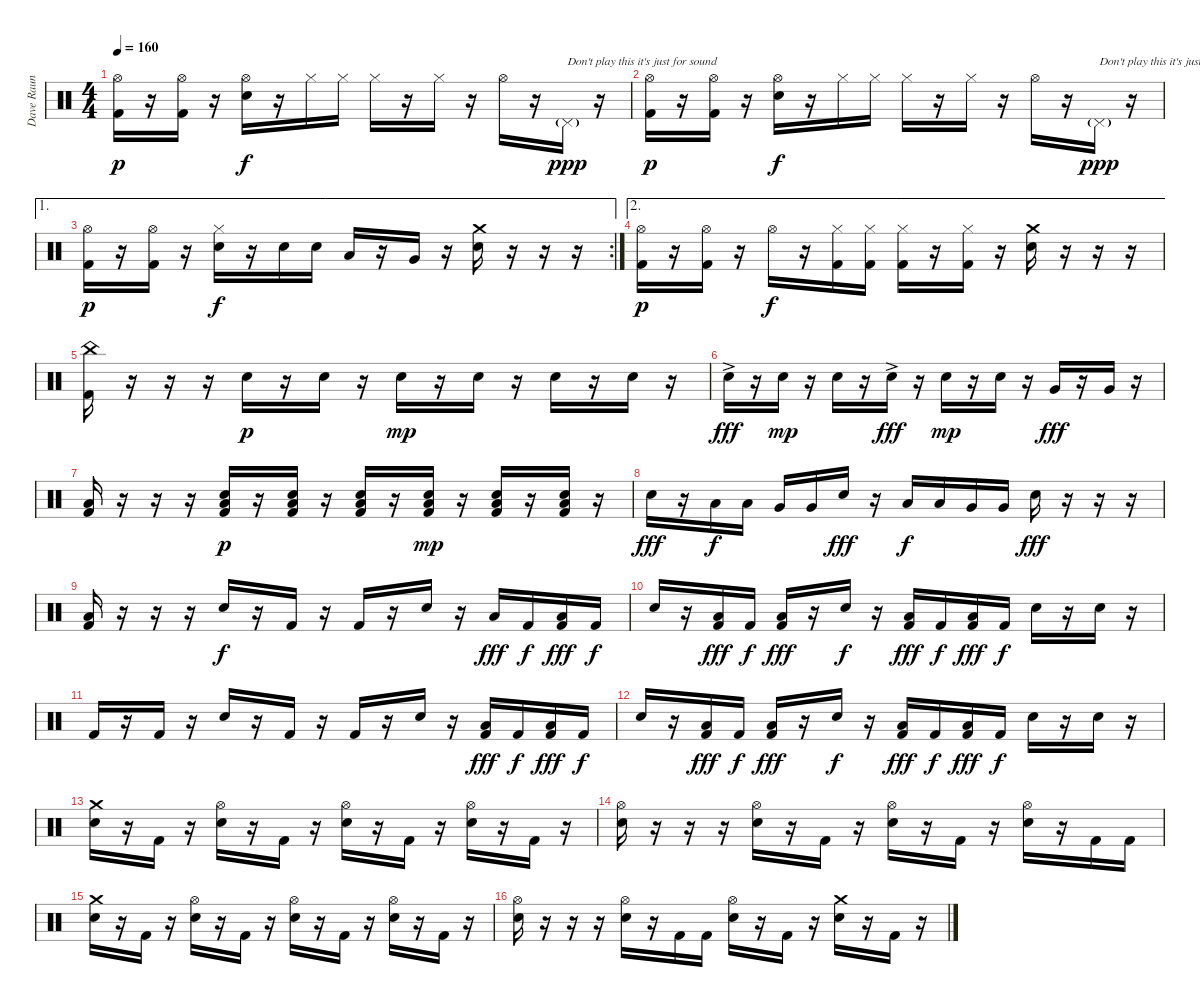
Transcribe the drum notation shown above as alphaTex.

\track ("Dave Raun" "Dave Raun") {instrument percussion}
\staff {score}
\articulation defaults
\ts (4 4)
\tempo 160
\clef neutral
\ks c
("Hi-Hat (open)" "Kick (hit) 2").16{dy p} r.16 ("Hi-Hat (open)" "Kick (hit) 2").16 r.16 ("Hi-Hat (open)" "Snare (hit) 2").16{dy f} r.16 "Hi-Hat (closed)".16 "Hi-Hat (closed)".16 "Hi-Hat (closed)".16 r.16 "Hi-Hat (closed)".16 r.16 "Hi-Hat (open)".16 r.16 "Pedal Hi-Hat (hit)"{g}.16{txt "Don't play this it's just for sound" dy ppp} r.16 |
("Hi-Hat (open)" "Kick (hit) 2").16{dy p} r.16 ("Hi-Hat (open)" "Kick (hit) 2").16 r.16 ("Hi-Hat (open)" "Snare (hit) 2").16{dy f} r.16 "Hi-Hat (closed)".16 "Hi-Hat (closed)".16 "Hi-Hat (closed)".16 r.16 "Hi-Hat (closed)".16 r.16 "Hi-Hat (open)".16 r.16 "Pedal Hi-Hat (hit)"{g}.16{txt "Don't play this it's just for sound" dy ppp} r.16 |
\ae 1
\rc 2
("Hi-Hat (open)" "Kick (hit) 2").16{dy p} r.16 ("Hi-Hat (open)" "Kick (hit) 2").16 r.16 ("Hi-Hat (closed)" "Snare (hit) 2").16{dy f} r.16 "Snare (hit) 2".16 "Snare (hit) 2".16 "Low Tom (hit)".16 r.16 "Very Low Tom (hit)".16 r.16 ("Crash medium (hit)" "Snare (hit) 2").16 r.16 r.16 r.16 |
\ae 2
("Hi-Hat (open)" "Kick (hit) 2").16{dy p} r.16 ("Hi-Hat (open)" "Kick (hit) 2").16 r.16 "Hi-Hat (open)".16{dy f} r.16 ("Hi-Hat (closed)" "Kick (hit) 2").16 ("Hi-Hat (closed)" "Kick (hit) 2").16 ("Hi-Hat (closed)" "Kick (hit) 2").16 r.16 ("Hi-Hat (closed)" "Kick (hit) 2").16 r.16 ("Crash medium (hit)" "Snare (hit) 2").16 r.16 r.16 r.16 |
("China (hit)" "Kick (hit) 2").16 r.16 r.16 r.16 "Snare (hit) 2".16{dy p} r.16 "Snare (hit) 2".16 r.16 "Snare (hit) 2".16{dy mp} r.16 "Snare (hit) 2".16 r.16 "Snare (hit) 2".16 r.16 "Snare (hit) 2".16 r.16 |
"Snare (hit) 2"{ac}.16{dy fff} r.16 "Snare (hit) 2".16{dy mp} r.16 "Snare (hit) 2".16 r.16 "Snare (hit) 2"{ac}.16{dy fff} r.16 "Snare (hit) 2".16{dy mp} r.16 "Snare (hit) 2".16 r.16 "Very Low Tom (hit)".16{dy fff} r.16 "Very Low Tom (hit)".16 r.16 |
("Low Tom (hit)" "Kick (hit) 2").16 r.16 r.16 r.16 ("Low Floor Tom (hit)" "Snare (hit) 2" "Kick (hit) 2").16{dy p} r.16 ("Low Floor Tom (hit)" "Snare (hit) 2" "Kick (hit) 2").16 r.16 ("Low Floor Tom (hit)" "Snare (hit) 2" "Kick (hit) 2").16 r.16 ("Low Floor Tom (hit)" "Snare (hit) 2" "Kick (hit) 2").16{dy mp} r.16 ("Low Floor Tom (hit)" "Snare (hit) 2" "Kick (hit) 2").16 r.16 ("Low Floor Tom (hit)" "Snare (hit) 2" "Kick (hit) 2").16 r.16 |
"Snare (hit) 2".16{dy fff} r.16 "Low Tom (hit)".16{dy f} "Low Tom (hit)".16 "Very Low Tom (hit)".16 "Very Low Tom (hit)".16 "Snare (hit) 2".16{dy fff} r.16 "Low Tom (hit)".16{dy f} "Low Tom (hit)".16 "Very Low Tom (hit)".16 "Very Low Tom (hit)".16 "Snare (hit) 2".16{dy fff} r.16 r.16 r.16 |
("Low Tom (hit)" "Kick (hit) 2").16 r.16 r.16 r.16 "Snare (hit) 2".16{dy f} r.16 "Kick (hit) 2".16 r.16 "Kick (hit) 2".16 r.16 "Snare (hit) 2".16 r.16 "Low Tom (hit)".16{dy fff} "Kick (hit) 2".16{dy f} ("Low Tom (hit)" "Kick (hit) 2").16{dy fff} "Kick (hit) 2".16{dy f} |
"Snare (hit) 2".16 r.16 ("Low Tom (hit)" "Kick (hit) 2").16{dy fff} "Kick (hit) 2".16{dy f} ("Low Tom (hit)" "Kick (hit) 2").16{dy fff} r.16 "Snare (hit) 2".16{dy f} r.16 ("Low Tom (hit)" "Kick (hit) 2").16{dy fff} "Kick (hit) 2".16{dy f} ("Low Tom (hit)" "Kick (hit) 2").16{dy fff} "Kick (hit) 2".16{dy f} "Snare (hit) 2".16 r.16 "Snare (hit) 2".16 r.16 |
"Kick (hit) 2".16 r.16 "Kick (hit) 2".16 r.16 "Snare (hit) 2".16 r.16 "Kick (hit) 2".16 r.16 "Kick (hit) 2".16 r.16 "Snare (hit) 2".16 r.16 ("Low Tom (hit)" "Kick (hit) 2").16{dy fff} "Kick (hit) 2".16{dy f} ("Low Tom (hit)" "Kick (hit) 2").16{dy fff} "Kick (hit) 2".16{dy f} |
"Snare (hit) 2".16 r.16 ("Low Tom (hit)" "Kick (hit) 2").16{dy fff} "Kick (hit) 2".16{dy f} ("Low Tom (hit)" "Kick (hit) 2").16{dy fff} r.16 "Snare (hit) 2".16{dy f} r.16 ("Low Tom (hit)" "Kick (hit) 2").16{dy fff} "Kick (hit) 2".16{dy f} ("Low Tom (hit)" "Kick (hit) 2").16{dy fff} "Kick (hit) 2".16{dy f} "Snare (hit) 2".16 r.16 "Snare (hit) 2".16 r.16 |
("Crash medium (hit)" "Snare (hit) 2").16 r.16 "Kick (hit) 2".16 r.16 ("Hi-Hat (open)" "Snare (hit) 2").16 r.16 "Kick (hit) 2".16 r.16 ("Hi-Hat (open)" "Snare (hit) 2").16 r.16 "Kick (hit) 2".16 r.16 ("Hi-Hat (open)" "Snare (hit) 2").16 r.16 "Kick (hit) 2".16 r.16 |
("Hi-Hat (open)" "Snare (hit) 2").16 r.16 r.16 r.16 ("Hi-Hat (open)" "Snare (hit) 2").16 r.16 "Kick (hit) 2".16 r.16 ("Hi-Hat (open)" "Snare (hit) 2").16 r.16 "Kick (hit) 2".16 r.16 ("Hi-Hat (open)" "Snare (hit) 2").16 r.16 "Kick (hit) 2".16 "Kick (hit) 2".16 |
("Crash medium (hit)" "Snare (hit) 2").16 r.16 "Kick (hit) 2".16 r.16 ("Hi-Hat (open)" "Snare (hit) 2").16 r.16 "Kick (hit) 2".16 r.16 ("Hi-Hat (open)" "Snare (hit) 2").16 r.16 "Kick (hit) 2".16 r.16 ("Hi-Hat (open)" "Snare (hit) 2").16 r.16 "Kick (hit) 2".16 r.16 |
("Hi-Hat (open)" "Snare (hit) 2").16 r.16 r.16 r.16 ("Hi-Hat (open)" "Snare (hit) 2").16 r.16 "Kick (hit) 2".16 "Kick (hit) 2".16 ("Hi-Hat (open)" "Snare (hit) 2").16 r.16 "Kick (hit) 2".16 r.16 ("Crash medium (hit)" "Snare (hit) 2").16 r.16 "Kick (hit) 2".16 r.16
